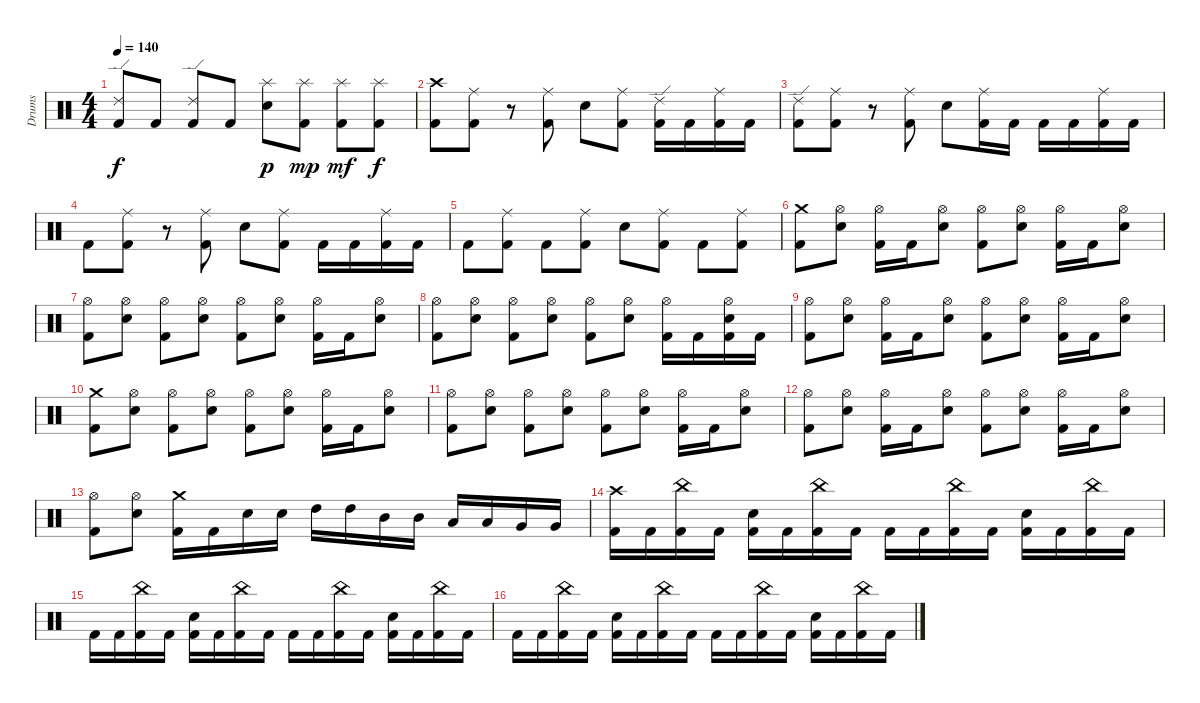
\track ("Drums" "Drums") {instrument percussion}
\staff {score}
\articulation defaults
\ts (4 4)
\tempo 140
\clef neutral
\ks c
("Kick (hit) 2" "Ride (edge) 2").8{dy f} "Kick (hit) 2".8 ("Kick (hit) 2" "Ride (edge) 2").8 "Kick (hit) 2".8 ("Electric Snare (hit)" "Splash (hit)").8{dy p} ("Kick (hit) 2" "Splash (hit)").8{dy mp} ("Kick (hit) 2" "Splash (hit)").8{dy mf} ("Kick (hit) 2" "Splash (hit)").8{dy f} |
("Kick (hit) 2" "Crash high (hit)").8 ("Kick (hit) 2" "Ride (middle)").8 r.8 ("Kick (hit) 2" "Ride (middle)").8 "Electric Snare (hit)".8 ("Kick (hit) 2" "Ride (middle)").8 ("Kick (hit) 2" "Ride (edge) 2").16 "Kick (hit) 2".16 ("Kick (hit) 2" "Ride (middle)").16 "Kick (hit) 2".16 |
("Kick (hit) 2" "Ride (edge) 2").8 ("Kick (hit) 2" "Ride (middle)").8 r.8 ("Kick (hit) 2" "Ride (middle)").8 "Electric Snare (hit)".8 ("Kick (hit) 2" "Ride (middle)").16 "Kick (hit) 2".16 "Kick (hit) 2".16 "Kick (hit) 2".16 ("Kick (hit) 2" "Ride (middle)").16 "Kick (hit) 2".16 |
"Kick (hit) 2".8 ("Kick (hit) 2" "Ride (middle)").8 r.8 ("Kick (hit) 2" "Ride (middle)").8 "Electric Snare (hit)".8 ("Kick (hit) 2" "Ride (middle)").8 "Kick (hit) 2".16 "Kick (hit) 2".16 ("Kick (hit) 2" "Ride (middle)").16 "Kick (hit) 2".16 |
"Kick (hit) 2".8 ("Kick (hit) 2" "Ride (middle)").8 "Kick (hit) 2".8 ("Kick (hit) 2" "Ride (middle)").8 "Electric Snare (hit)".8 ("Kick (hit) 2" "Ride (middle)").8 "Kick (hit) 2".8 ("Kick (hit) 2" "Ride (middle)").8 |
("Kick (hit) 2" "Crash medium (hit)").8 ("Electric Snare (hit)" "Hi-Hat (open)").8 ("Kick (hit) 2" "Hi-Hat (open)").16 "Kick (hit) 2".16 ("Electric Snare (hit)" "Hi-Hat (open)").8 ("Kick (hit) 2" "Hi-Hat (open)").8 ("Electric Snare (hit)" "Hi-Hat (open)").8 ("Kick (hit) 2" "Hi-Hat (open)").16 "Kick (hit) 2".16 ("Electric Snare (hit)" "Hi-Hat (open)").8 |
("Kick (hit) 2" "Hi-Hat (open)").8 ("Electric Snare (hit)" "Hi-Hat (open)").8 ("Kick (hit) 2" "Hi-Hat (open)").8 ("Electric Snare (hit)" "Hi-Hat (open)").8 ("Kick (hit) 2" "Hi-Hat (open)").8 ("Electric Snare (hit)" "Hi-Hat (open)").8 ("Kick (hit) 2" "Hi-Hat (open)").16 "Kick (hit) 2".16 ("Electric Snare (hit)" "Hi-Hat (open)").8 |
("Kick (hit) 2" "Hi-Hat (open)").8 ("Electric Snare (hit)" "Hi-Hat (open)").8 ("Kick (hit) 2" "Hi-Hat (open)").8 ("Electric Snare (hit)" "Hi-Hat (open)").8 ("Kick (hit) 2" "Hi-Hat (open)").8 ("Electric Snare (hit)" "Hi-Hat (open)").8 ("Kick (hit) 2" "Hi-Hat (open)").16 "Kick (hit) 2".16 ("Kick (hit) 2" "Electric Snare (hit)" "Hi-Hat (open)").16 "Kick (hit) 2".16 |
("Kick (hit) 2" "Hi-Hat (open)").8 ("Electric Snare (hit)" "Hi-Hat (open)").8 ("Kick (hit) 2" "Hi-Hat (open)").16 "Kick (hit) 2".16 ("Electric Snare (hit)" "Hi-Hat (open)").8 ("Kick (hit) 2" "Hi-Hat (open)").8 ("Electric Snare (hit)" "Hi-Hat (open)").8 ("Kick (hit) 2" "Hi-Hat (open)").16 "Kick (hit) 2".16 ("Electric Snare (hit)" "Hi-Hat (open)").8 |
("Kick (hit) 2" "Crash medium (hit)").8 ("Electric Snare (hit)" "Hi-Hat (open)").8 ("Kick (hit) 2" "Hi-Hat (open)").8 ("Electric Snare (hit)" "Hi-Hat (open)").8 ("Kick (hit) 2" "Hi-Hat (open)").8 ("Electric Snare (hit)" "Hi-Hat (open)").8 ("Kick (hit) 2" "Hi-Hat (open)").16 "Kick (hit) 2".16 ("Electric Snare (hit)" "Hi-Hat (open)").8 |
("Kick (hit) 2" "Hi-Hat (open)").8 ("Electric Snare (hit)" "Hi-Hat (open)").8 ("Kick (hit) 2" "Hi-Hat (open)").8 ("Electric Snare (hit)" "Hi-Hat (open)").8 ("Kick (hit) 2" "Hi-Hat (open)").8 ("Electric Snare (hit)" "Hi-Hat (open)").8 ("Kick (hit) 2" "Hi-Hat (open)").16 "Kick (hit) 2".16 ("Electric Snare (hit)" "Hi-Hat (open)").8 |
("Kick (hit) 2" "Hi-Hat (open)").8 ("Electric Snare (hit)" "Hi-Hat (open)").8 ("Kick (hit) 2" "Hi-Hat (open)").16 "Kick (hit) 2".16 ("Electric Snare (hit)" "Hi-Hat (open)").8 ("Kick (hit) 2" "Hi-Hat (open)").8 ("Electric Snare (hit)" "Hi-Hat (open)").8 ("Kick (hit) 2" "Hi-Hat (open)").16 "Kick (hit) 2".16 ("Electric Snare (hit)" "Hi-Hat (open)").8 |
("Kick (hit) 2" "Hi-Hat (open)").8 ("Electric Snare (hit)" "Hi-Hat (open)").8 ("Kick (hit) 2" "Crash medium (hit)").16 "Kick (hit) 2".16 "Electric Snare (hit)".16 "Electric Snare (hit)".16 "High Tom (hit)".16 "High Tom (hit)".16 "Mid Tom (hit)".16 "Mid Tom (hit)".16 "Low Tom (hit)".16 "Low Tom (hit)".16 "Very Low Tom (hit)".16 "Very Low Tom (hit)".16 |
("Kick (hit) 2" "Crash high (hit)").16 "Kick (hit) 2".16 ("Kick (hit) 2" "China (hit)").16 "Kick (hit) 2".16 ("Kick (hit) 2" "Electric Snare (hit)").16 "Kick (hit) 2".16 ("Kick (hit) 2" "China (hit)").16 "Kick (hit) 2".16 "Kick (hit) 2".16 "Kick (hit) 2".16 ("Kick (hit) 2" "China (hit)").16 "Kick (hit) 2".16 ("Kick (hit) 2" "Electric Snare (hit)").16 "Kick (hit) 2".16 ("Kick (hit) 2" "China (hit)").16 "Kick (hit) 2".16 |
"Kick (hit) 2".16 "Kick (hit) 2".16 ("Kick (hit) 2" "China (hit)").16 "Kick (hit) 2".16 ("Kick (hit) 2" "Electric Snare (hit)").16 "Kick (hit) 2".16 ("Kick (hit) 2" "China (hit)").16 "Kick (hit) 2".16 "Kick (hit) 2".16 "Kick (hit) 2".16 ("Kick (hit) 2" "China (hit)").16 "Kick (hit) 2".16 ("Kick (hit) 2" "Electric Snare (hit)").16 "Kick (hit) 2".16 ("Kick (hit) 2" "China (hit)").16 "Kick (hit) 2".16 |
"Kick (hit) 2".16 "Kick (hit) 2".16 ("Kick (hit) 2" "China (hit)").16 "Kick (hit) 2".16 ("Kick (hit) 2" "Electric Snare (hit)").16 "Kick (hit) 2".16 ("Kick (hit) 2" "China (hit)").16 "Kick (hit) 2".16 "Kick (hit) 2".16 "Kick (hit) 2".16 ("Kick (hit) 2" "China (hit)").16 "Kick (hit) 2".16 ("Kick (hit) 2" "Electric Snare (hit)").16 "Kick (hit) 2".16 ("Kick (hit) 2" "China (hit)").16 "Kick (hit) 2".16
